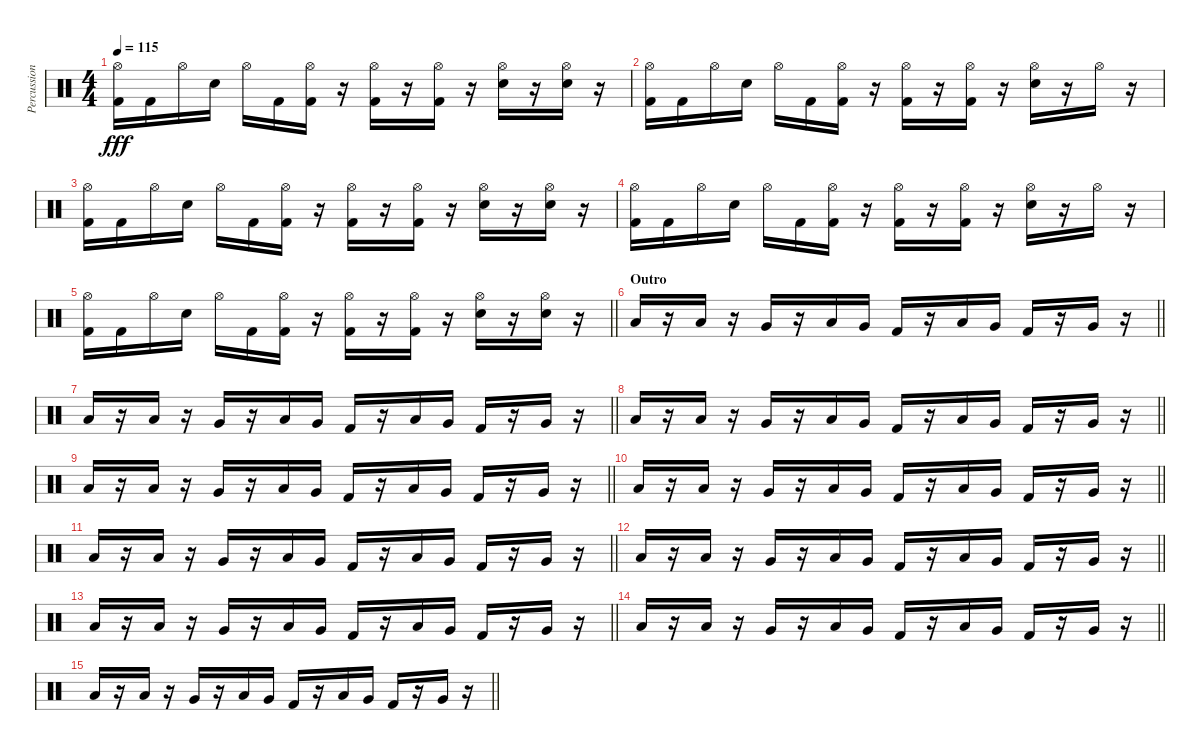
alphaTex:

\track ("Percussion 2" "Percussion") {instrument percussion}
\staff {score}
\articulation defaults
\ts (4 4)
\tempo 115
\clef neutral
\ks c
("Hi-Hat (open)" "Kick (hit) 2").16{dy fff} "Kick (hit) 2".16 "Hi-Hat (open)".16 "Electric Snare (hit)".16 "Hi-Hat (open)".16 "Kick (hit) 2".16 ("Hi-Hat (open)" "Kick (hit) 2").16 r.16 ("Hi-Hat (open)" "Kick (hit) 2").16 r.16 ("Hi-Hat (open)" "Kick (hit) 2").16 r.16 ("Hi-Hat (open)" "Electric Snare (hit)").16 r.16 ("Hi-Hat (open)" "Electric Snare (hit)").16 r.16 |
("Hi-Hat (open)" "Kick (hit) 2").16 "Kick (hit) 2".16 "Hi-Hat (open)".16 "Electric Snare (hit)".16 "Hi-Hat (open)".16 "Kick (hit) 2".16 ("Hi-Hat (open)" "Kick (hit) 2").16 r.16 ("Hi-Hat (open)" "Kick (hit) 2").16 r.16 ("Hi-Hat (open)" "Kick (hit) 2").16 r.16 ("Hi-Hat (open)" "Electric Snare (hit)").16 r.16 "Hi-Hat (open)".16 r.16 |
("Hi-Hat (open)" "Kick (hit) 2").16 "Kick (hit) 2".16 "Hi-Hat (open)".16 "Electric Snare (hit)".16 "Hi-Hat (open)".16 "Kick (hit) 2".16 ("Hi-Hat (open)" "Kick (hit) 2").16 r.16 ("Hi-Hat (open)" "Kick (hit) 2").16 r.16 ("Hi-Hat (open)" "Kick (hit) 2").16 r.16 ("Hi-Hat (open)" "Electric Snare (hit)").16 r.16 ("Hi-Hat (open)" "Electric Snare (hit)").16 r.16 |
("Hi-Hat (open)" "Kick (hit) 2").16 "Kick (hit) 2".16 "Hi-Hat (open)".16 "Electric Snare (hit)".16 "Hi-Hat (open)".16 "Kick (hit) 2".16 ("Hi-Hat (open)" "Kick (hit) 2").16 r.16 ("Hi-Hat (open)" "Kick (hit) 2").16 r.16 ("Hi-Hat (open)" "Kick (hit) 2").16 r.16 ("Hi-Hat (open)" "Electric Snare (hit)").16 r.16 "Hi-Hat (open)".16 r.16 |
\barLineRight lightlight
("Hi-Hat (open)" "Kick (hit) 2").16 "Kick (hit) 2".16 "Hi-Hat (open)".16 "Electric Snare (hit)".16 "Hi-Hat (open)".16 "Kick (hit) 2".16 ("Hi-Hat (open)" "Kick (hit) 2").16 r.16 ("Hi-Hat (open)" "Kick (hit) 2").16 r.16 ("Hi-Hat (open)" "Kick (hit) 2").16 r.16 ("Hi-Hat (open)" "Electric Snare (hit)").16 r.16 ("Hi-Hat (open)" "Electric Snare (hit)").16 r.16 |
\section ("" "Outro")
\barLineRight lightlight "Low Tom (hit)".16
r.16 "Low Floor Tom (hit)".16 r.16 "Very Low Tom (hit)".16 r.16 "Low Floor Tom (hit)".16 "Very Low Tom (hit)".16 "Kick (hit) 2".16 r.16 "Low Floor Tom (hit)".16 "Very Low Tom (hit)".16 "Kick (hit) 2".16 r.16 "Very Low Tom (hit)".16 r.16 |
\barLineRight lightlight "Low Tom (hit)".16
r.16 "Low Floor Tom (hit)".16 r.16 "Very Low Tom (hit)".16 r.16 "Low Floor Tom (hit)".16 "Very Low Tom (hit)".16 "Kick (hit) 2".16 r.16 "Low Floor Tom (hit)".16 "Very Low Tom (hit)".16 "Kick (hit) 2".16 r.16 "Very Low Tom (hit)".16 r.16 |
\barLineRight lightlight "Low Tom (hit)".16
r.16 "Low Floor Tom (hit)".16 r.16 "Very Low Tom (hit)".16 r.16 "Low Floor Tom (hit)".16 "Very Low Tom (hit)".16 "Kick (hit) 2".16 r.16 "Low Floor Tom (hit)".16 "Very Low Tom (hit)".16 "Kick (hit) 2".16 r.16 "Very Low Tom (hit)".16 r.16 |
\barLineRight lightlight "Low Tom (hit)".16
r.16 "Low Floor Tom (hit)".16 r.16 "Very Low Tom (hit)".16 r.16 "Low Floor Tom (hit)".16 "Very Low Tom (hit)".16 "Kick (hit) 2".16 r.16 "Low Floor Tom (hit)".16 "Very Low Tom (hit)".16 "Kick (hit) 2".16 r.16 "Very Low Tom (hit)".16 r.16 |
\barLineRight lightlight "Low Tom (hit)".16
r.16 "Low Floor Tom (hit)".16 r.16 "Very Low Tom (hit)".16 r.16 "Low Floor Tom (hit)".16 "Very Low Tom (hit)".16 "Kick (hit) 2".16 r.16 "Low Floor Tom (hit)".16 "Very Low Tom (hit)".16 "Kick (hit) 2".16 r.16 "Very Low Tom (hit)".16 r.16 |
\barLineRight lightlight "Low Tom (hit)".16
r.16 "Low Floor Tom (hit)".16 r.16 "Very Low Tom (hit)".16 r.16 "Low Floor Tom (hit)".16 "Very Low Tom (hit)".16 "Kick (hit) 2".16 r.16 "Low Floor Tom (hit)".16 "Very Low Tom (hit)".16 "Kick (hit) 2".16 r.16 "Very Low Tom (hit)".16 r.16 |
\barLineRight lightlight "Low Tom (hit)".16
r.16 "Low Floor Tom (hit)".16 r.16 "Very Low Tom (hit)".16 r.16 "Low Floor Tom (hit)".16 "Very Low Tom (hit)".16 "Kick (hit) 2".16 r.16 "Low Floor Tom (hit)".16 "Very Low Tom (hit)".16 "Kick (hit) 2".16 r.16 "Very Low Tom (hit)".16 r.16 |
\barLineRight lightlight "Low Tom (hit)".16
r.16 "Low Floor Tom (hit)".16 r.16 "Very Low Tom (hit)".16 r.16 "Low Floor Tom (hit)".16 "Very Low Tom (hit)".16 "Kick (hit) 2".16 r.16 "Low Floor Tom (hit)".16 "Very Low Tom (hit)".16 "Kick (hit) 2".16 r.16 "Very Low Tom (hit)".16 r.16 |
\barLineRight lightlight "Low Tom (hit)".16
r.16 "Low Floor Tom (hit)".16 r.16 "Very Low Tom (hit)".16 r.16 "Low Floor Tom (hit)".16 "Very Low Tom (hit)".16 "Kick (hit) 2".16 r.16 "Low Floor Tom (hit)".16 "Very Low Tom (hit)".16 "Kick (hit) 2".16 r.16 "Very Low Tom (hit)".16 r.16 |
\barLineRight lightlight "Low Tom (hit)".16
r.16 "Low Floor Tom (hit)".16 r.16 "Very Low Tom (hit)".16 r.16 "Low Floor Tom (hit)".16 "Very Low Tom (hit)".16 "Kick (hit) 2".16 r.16 "Low Floor Tom (hit)".16 "Very Low Tom (hit)".16 "Kick (hit) 2".16 r.16 "Very Low Tom (hit)".16 r.16
